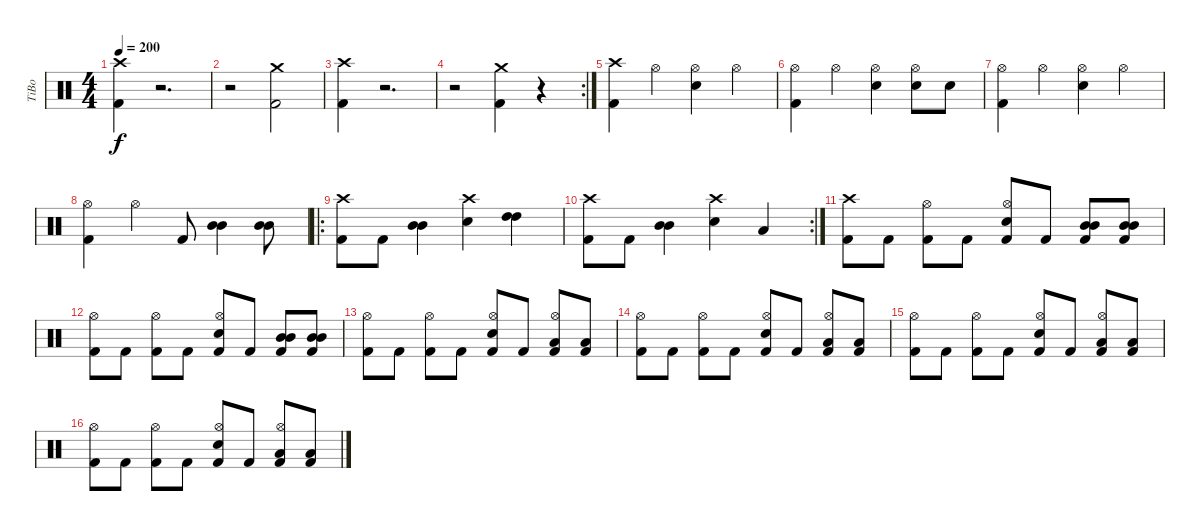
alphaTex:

\track ("TiBo" "TiBo") {instrument percussion}
\staff {score}
\articulation defaults
\ts (4 4)
\tempo 200
\clef neutral
\ks c
("Crash high (hit)" "Kick (hit) 2").4{dy f} r.2{d} |
r.2 ("Crash medium (hit)" "Kick (hit) 2").2 |
("Crash high (hit)" "Kick (hit) 2").4 r.2{d} |
\rc 2
r.2 ("Crash medium (hit)" "Kick (hit) 2").4 r.4 |
("Crash high (hit)" "Kick (hit) 2").4 "Hi-Hat (open)".4 ("Hi-Hat (open)" "Electric Snare (hit)").4 "Hi-Hat (open)".4 |
("Hi-Hat (open)" "Kick (hit) 2").4 "Hi-Hat (open)".4 ("Hi-Hat (open)" "Electric Snare (hit)").4 ("Hi-Hat (open)" "Electric Snare (hit)").8 "Electric Snare (hit)".8 |
("Hi-Hat (open)" "Kick (hit) 2").4 "Hi-Hat (open)".4 ("Hi-Hat (open)" "Electric Snare (hit)").4 "Hi-Hat (open)".4 |
("Hi-Hat (open)" "Kick (hit) 2").4 "Hi-Hat (open)".4 "Kick (hit) 2".8 ("Mid Tom (hit)" "Mid Tom (hit)").4 ("Mid Tom (hit)" "Mid Tom (hit)").8 |
\ro
("Crash high (hit)" "Kick (hit) 2").8 "Kick (hit) 2".8 ("Mid Tom (hit)" "Mid Tom (hit)").4 ("Crash high (hit)" "Electric Snare (hit)").4 ("High Tom (hit)" "High Tom (hit)").4 |
\rc 2
("Crash high (hit)" "Kick (hit) 2").8 "Kick (hit) 2".8 ("Mid Tom (hit)" "Mid Tom (hit)").4 ("Crash high (hit)" "Electric Snare (hit)").4 "Low Tom (hit)".4 |
("Crash high (hit)" "Kick (hit) 2").8 "Kick (hit) 2".8 ("Hi-Hat (open)" "Kick (hit) 2").8 "Kick (hit) 2".8 ("Hi-Hat (open)" "Electric Snare (hit)" "Kick (hit) 2").8 "Kick (hit) 2".8 ("Mid Tom (hit)" "Mid Tom (hit)" "Kick (hit) 2").8 ("Mid Tom (hit)" "Mid Tom (hit)" "Kick (hit) 2").8 |
("Hi-Hat (open)" "Kick (hit) 2").8 "Kick (hit) 2".8 ("Hi-Hat (open)" "Kick (hit) 2").8 "Kick (hit) 2".8 ("Hi-Hat (open)" "Electric Snare (hit)" "Kick (hit) 2").8 "Kick (hit) 2".8 ("Mid Tom (hit)" "Mid Tom (hit)" "Kick (hit) 2").8 ("Mid Tom (hit)" "Mid Tom (hit)" "Kick (hit) 2").8 |
("Hi-Hat (open)" "Kick (hit) 2").8 "Kick (hit) 2".8 ("Hi-Hat (open)" "Kick (hit) 2").8 "Kick (hit) 2".8 ("Hi-Hat (open)" "Snare (hit) 2" "Kick (hit) 2").8 "Kick (hit) 2".8 ("Hi-Hat (open)" "Low Tom (hit)" "Kick (hit) 2").8 ("Low Tom (hit)" "Kick (hit) 2").8 |
("Hi-Hat (open)" "Kick (hit) 2").8 "Kick (hit) 2".8 ("Hi-Hat (open)" "Kick (hit) 2").8 "Kick (hit) 2".8 ("Hi-Hat (open)" "Snare (hit) 2" "Kick (hit) 2").8 "Kick (hit) 2".8 ("Hi-Hat (open)" "Low Tom (hit)" "Kick (hit) 2").8 ("Low Tom (hit)" "Kick (hit) 2").8 |
("Hi-Hat (open)" "Kick (hit) 2").8 "Kick (hit) 2".8 ("Hi-Hat (open)" "Kick (hit) 2").8 "Kick (hit) 2".8 ("Hi-Hat (open)" "Snare (hit) 2" "Kick (hit) 2").8 "Kick (hit) 2".8 ("Hi-Hat (open)" "Low Tom (hit)" "Kick (hit) 2").8 ("Low Tom (hit)" "Kick (hit) 2").8 |
("Hi-Hat (open)" "Kick (hit) 2").8 "Kick (hit) 2".8 ("Hi-Hat (open)" "Kick (hit) 2").8 "Kick (hit) 2".8 ("Hi-Hat (open)" "Snare (hit) 2" "Kick (hit) 2").8 "Kick (hit) 2".8 ("Hi-Hat (open)" "Low Tom (hit)" "Kick (hit) 2").8 ("Low Tom (hit)" "Kick (hit) 2").8
